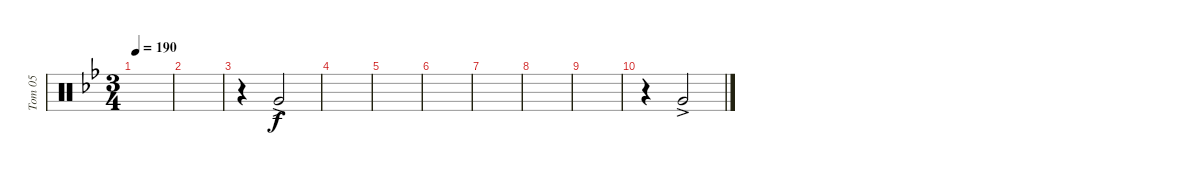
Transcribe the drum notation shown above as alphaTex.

\track ("Tom 05" "Tom 05") {instrument percussion}
\staff {score}
\articulation defaults
\ts (3 4)
\tempo 190
\clef neutral
\ks bb
|
|
r.4 "Very Low Tom (hit)"{ac}.2 |
|
|
|
|
|
|
r.4 "Very Low Tom (hit)"{ac}.2
